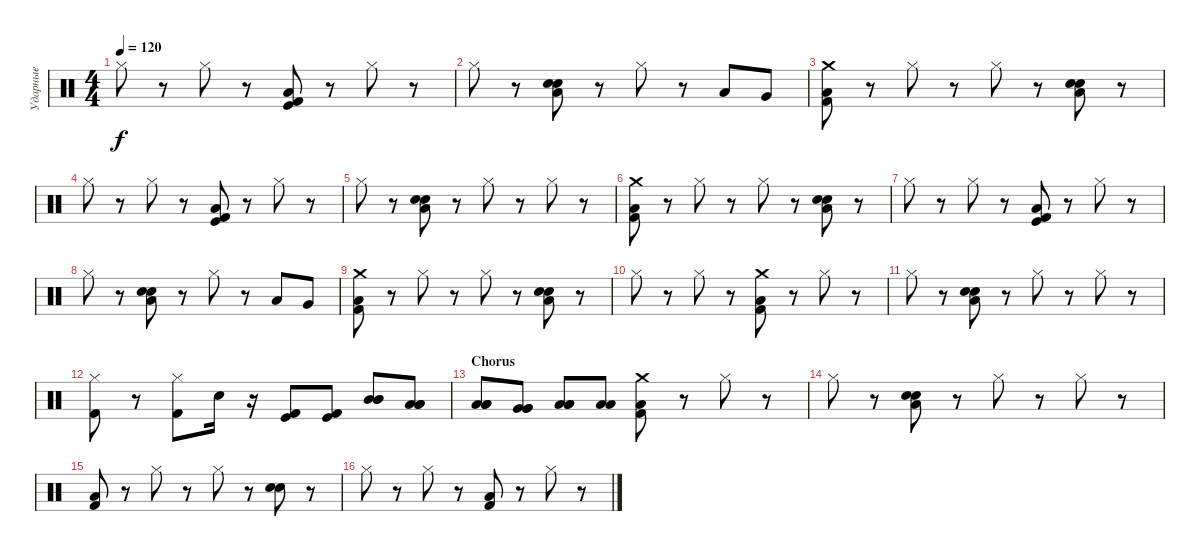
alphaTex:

\track ("Ударные" "Ударные") {instrument percussion}
\staff {score}
\articulation defaults
\ts (4 4)
\tempo 120
\clef neutral
\ks c "Hi-Hat (closed)".8{dy f}
r.8 "Hi-Hat (closed)".8 r.8 ("Kick (hit) 2" "Low Floor Tom (hit)" "Kick (hit)").8 r.8 "Hi-Hat (closed)".8 r.8 |
"Hi-Hat (closed)".8 r.8 ("Electric Snare (hit)" "Snare (hit) 2" "Low Floor Tom (hit)").8 r.8 "Hi-Hat (closed)".8 r.8 "Low Tom (hit)".8 "Very Low Tom (hit)".8 |
("Low Floor Tom (hit)" "Crash medium (hit)" "Kick (hit) 2").8 r.8 "Hi-Hat (closed)".8 r.8 "Hi-Hat (closed)".8 r.8 ("Electric Snare (hit)" "Snare (hit) 2" "Low Floor Tom (hit)").8 r.8 |
"Hi-Hat (closed)".8 r.8 "Hi-Hat (closed)".8 r.8 ("Kick (hit) 2" "Low Floor Tom (hit)" "Kick (hit)").8 r.8 "Hi-Hat (closed)".8 r.8 |
"Hi-Hat (closed)".8 r.8 ("Electric Snare (hit)" "Snare (hit) 2" "Low Floor Tom (hit)").8 r.8 "Hi-Hat (closed)".8 r.8 "Hi-Hat (closed)".8 r.8 |
("Low Floor Tom (hit)" "Crash medium (hit)" "Kick (hit) 2").8 r.8 "Hi-Hat (closed)".8 r.8 "Hi-Hat (closed)".8 r.8 ("Electric Snare (hit)" "Snare (hit) 2" "Low Floor Tom (hit)").8 r.8 |
"Hi-Hat (closed)".8 r.8 "Hi-Hat (closed)".8 r.8 ("Kick (hit) 2" "Low Floor Tom (hit)" "Kick (hit)").8 r.8 "Hi-Hat (closed)".8 r.8 |
"Hi-Hat (closed)".8 r.8 ("Electric Snare (hit)" "Snare (hit) 2" "Low Floor Tom (hit)").8 r.8 "Hi-Hat (closed)".8 r.8 "Low Tom (hit)".8 "Very Low Tom (hit)".8 |
("Low Floor Tom (hit)" "Crash medium (hit)" "Kick (hit) 2").8 r.8 "Hi-Hat (closed)".8 r.8 "Hi-Hat (closed)".8 r.8 ("Electric Snare (hit)" "Snare (hit) 2" "Low Floor Tom (hit)").8 r.8 |
"Hi-Hat (closed)".8 r.8 "Hi-Hat (closed)".8 r.8 ("Low Floor Tom (hit)" "Crash medium (hit)" "Kick (hit) 2").8 r.8 "Hi-Hat (closed)".8 r.8 |
"Hi-Hat (closed)".8 r.8 ("Electric Snare (hit)" "Snare (hit) 2" "Low Floor Tom (hit)").8 r.8 "Hi-Hat (closed)".8 r.8 "Hi-Hat (closed)".8 r.8 |
("Kick (hit) 2" "Hi-Hat (closed)").8 r.8 ("Kick (hit) 2" "Hi-Hat (closed)").8 "Electric Snare (hit)".16 r.16 ("Kick (hit) 2" "Kick (hit)").8 ("Kick (hit) 2" "Kick (hit)").8 ("Mid Tom (hit)" "Mid Tom (hit)" "Mid Tom (hit)").8 ("Low Tom (hit)" "Low Tom (hit)" "Low Tom (hit)").8 |
\section ("" "Chorus")
("Low Tom (hit)" "Low Tom (hit)" "Low Tom (hit)").8 ("Very Low Tom (hit)" "Very Low Tom (hit)" "Very Low Tom (hit)").8 ("Low Floor Tom (hit)" "Low Floor Tom (hit)" "Low Floor Tom (hit)").8 ("Low Floor Tom (hit)" "Low Floor Tom (hit)").8 ("Kick (hit) 2" "Crash medium (hit)" "Low Floor Tom (hit)").8 r.8 "Hi-Hat (closed)".8 r.8 |
"Hi-Hat (closed)".8 r.8 ("Snare (hit) 2" "Low Floor Tom (hit)" "Electric Snare (hit)").8 r.8 "Hi-Hat (closed)".8 r.8 "Hi-Hat (closed)".8 r.8 |
("Kick (hit) 2" "Low Floor Tom (hit)").8 r.8 "Hi-Hat (closed)".8 r.8 "Hi-Hat (closed)".8 r.8 ("Snare (hit) 2" "Electric Snare (hit)").8 r.8 |
"Hi-Hat (closed)".8 r.8 "Hi-Hat (closed)".8 r.8 ("Kick (hit) 2" "Low Floor Tom (hit)").8 r.8 "Hi-Hat (closed)".8 r.8
